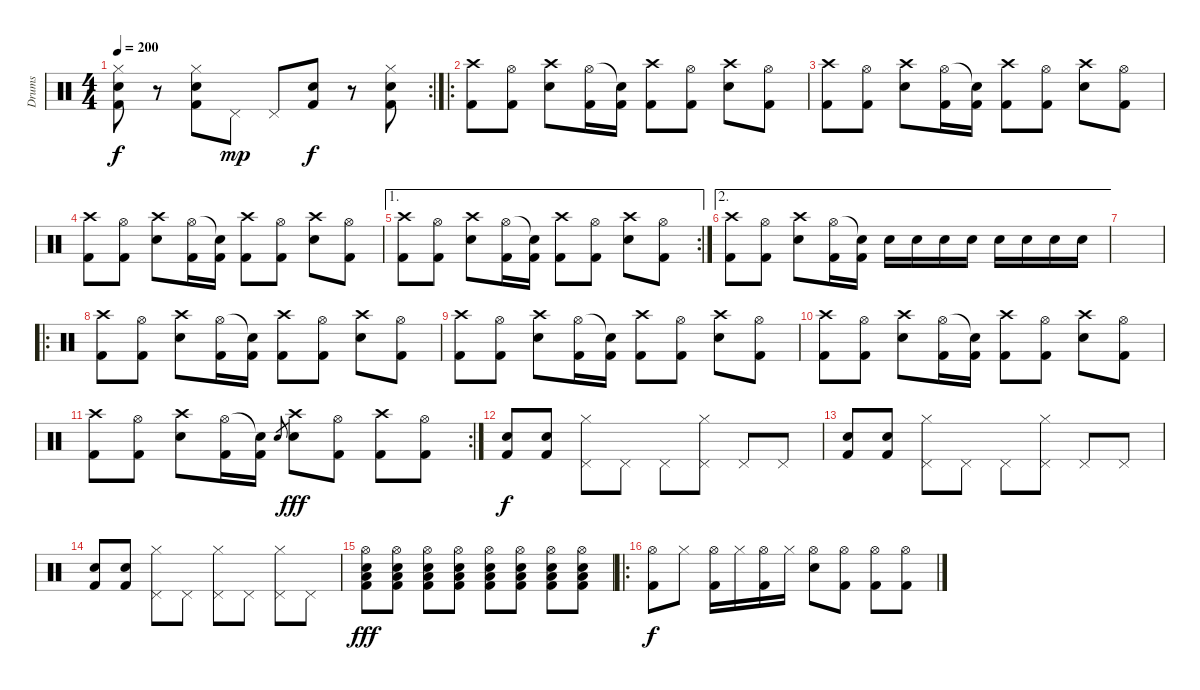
\track ("Drums" "Drums") {instrument percussion}
\staff {score}
\articulation defaults
\rc 2
\ts (4 4)
\tempo 200
\clef neutral
\ks c
("Hi-Hat (closed)" "Electric Snare (hit)" "Kick (hit) 2").8{dy f} r.8 ("Hi-Hat (closed)" "Electric Snare (hit)" "Kick (hit) 2").8 "Pedal Hi-Hat (hit)".8{dy mp} "Pedal Hi-Hat (hit)".8 ("Electric Snare (hit)" "Kick (hit) 2").8{dy f} r.8 ("Hi-Hat (closed)" "Electric Snare (hit)" "Kick (hit) 2").8 |
\ro
("Crash high (hit)" "Kick (hit) 2").8 ("Hi-Hat (open)" "Kick (hit) 2").8 ("Crash high (hit)" "Electric Snare (hit)").8 ("Hi-Hat (open)" "Kick (hit) 2").16 ("Snare (hit)"{t} "Kick (hit) 2").16 ("Crash high (hit)" "Kick (hit) 2").8 ("Hi-Hat (open)" "Kick (hit) 2").8 ("Crash high (hit)" "Electric Snare (hit)").8 ("Hi-Hat (open)" "Kick (hit) 2").8 |
("Crash high (hit)" "Kick (hit) 2").8 ("Hi-Hat (open)" "Kick (hit) 2").8 ("Crash high (hit)" "Electric Snare (hit)").8 ("Hi-Hat (open)" "Kick (hit) 2").16 ("Snare (hit)"{t} "Kick (hit) 2").16 ("Crash high (hit)" "Kick (hit) 2").8 ("Hi-Hat (open)" "Kick (hit) 2").8 ("Crash high (hit)" "Electric Snare (hit)").8 ("Hi-Hat (open)" "Kick (hit) 2").8 |
("Crash high (hit)" "Kick (hit) 2").8 ("Hi-Hat (open)" "Kick (hit) 2").8 ("Crash high (hit)" "Electric Snare (hit)").8 ("Hi-Hat (open)" "Kick (hit) 2").16 ("Snare (hit)"{t} "Kick (hit) 2").16 ("Crash high (hit)" "Kick (hit) 2").8 ("Hi-Hat (open)" "Kick (hit) 2").8 ("Crash high (hit)" "Electric Snare (hit)").8 ("Hi-Hat (open)" "Kick (hit) 2").8 |
\ae 1
\rc 2
("Crash high (hit)" "Kick (hit) 2").8 ("Hi-Hat (open)" "Kick (hit) 2").8 ("Crash high (hit)" "Electric Snare (hit)").8 ("Hi-Hat (open)" "Kick (hit) 2").16 ("Snare (hit)"{t} "Kick (hit) 2").16 ("Crash high (hit)" "Kick (hit) 2").8 ("Hi-Hat (open)" "Kick (hit) 2").8 ("Crash high (hit)" "Electric Snare (hit)").8 ("Hi-Hat (open)" "Kick (hit) 2").8 |
\ae 2
("Crash high (hit)" "Kick (hit) 2").8 ("Hi-Hat (open)" "Kick (hit) 2").8 ("Crash high (hit)" "Electric Snare (hit)").8 ("Hi-Hat (open)" "Kick (hit) 2").16 ("Snare (hit)"{t} "Kick (hit) 2").16 "Electric Snare (hit)".16 "Electric Snare (hit)".16 "Electric Snare (hit)".16 "Electric Snare (hit)".16 "Electric Snare (hit)".16 "Electric Snare (hit)".16 "Electric Snare (hit)".16 "Electric Snare (hit)".16 |
|
\ro
("Crash high (hit)" "Kick (hit) 2").8 ("Hi-Hat (open)" "Kick (hit) 2").8 ("Crash high (hit)" "Electric Snare (hit)").8 ("Hi-Hat (open)" "Kick (hit) 2").16 ("Snare (hit)"{t} "Kick (hit) 2").16 ("Crash high (hit)" "Kick (hit) 2").8 ("Hi-Hat (open)" "Kick (hit) 2").8 ("Crash high (hit)" "Electric Snare (hit)").8 ("Hi-Hat (open)" "Kick (hit) 2").8 |
("Crash high (hit)" "Kick (hit) 2").8 ("Hi-Hat (open)" "Kick (hit) 2").8 ("Crash high (hit)" "Electric Snare (hit)").8 ("Hi-Hat (open)" "Kick (hit) 2").16 ("Snare (hit)"{t} "Kick (hit) 2").16 ("Crash high (hit)" "Kick (hit) 2").8 ("Hi-Hat (open)" "Kick (hit) 2").8 ("Crash high (hit)" "Electric Snare (hit)").8 ("Hi-Hat (open)" "Kick (hit) 2").8 |
("Crash high (hit)" "Kick (hit) 2").8 ("Hi-Hat (open)" "Kick (hit) 2").8 ("Crash high (hit)" "Electric Snare (hit)").8 ("Hi-Hat (open)" "Kick (hit) 2").16 ("Snare (hit)"{t} "Kick (hit) 2").16 ("Crash high (hit)" "Kick (hit) 2").8 ("Hi-Hat (open)" "Kick (hit) 2").8 ("Crash high (hit)" "Electric Snare (hit)").8 ("Hi-Hat (open)" "Kick (hit) 2").8 |
\rc 2
("Crash high (hit)" "Kick (hit) 2").8 ("Hi-Hat (open)" "Kick (hit) 2").8 ("Crash high (hit)" "Electric Snare (hit)").8 ("Hi-Hat (open)" "Kick (hit) 2").16 ("Snare (hit)"{t} "Kick (hit) 2").16 "Electric Snare (hit)".8{gr} ("Crash high (hit)" "Electric Snare (hit)").8{dy fff} ("Hi-Hat (open)" "Kick (hit) 2").8 ("Crash high (hit)" "Kick (hit) 2").8 ("Hi-Hat (open)" "Kick (hit) 2").8 |
("Electric Snare (hit)" "Kick (hit) 2").8{dy f} ("Electric Snare (hit)" "Kick (hit) 2").8 ("Hi-Hat (closed)" "Pedal Hi-Hat (hit)").8 "Pedal Hi-Hat (hit)".8 "Pedal Hi-Hat (hit)".8 ("Hi-Hat (closed)" "Pedal Hi-Hat (hit)").8 "Pedal Hi-Hat (hit)".8 "Pedal Hi-Hat (hit)".8 |
("Electric Snare (hit)" "Kick (hit) 2").8 ("Electric Snare (hit)" "Kick (hit) 2").8 ("Hi-Hat (closed)" "Pedal Hi-Hat (hit)").8 "Pedal Hi-Hat (hit)".8 "Pedal Hi-Hat (hit)".8 ("Hi-Hat (closed)" "Pedal Hi-Hat (hit)").8 "Pedal Hi-Hat (hit)".8 "Pedal Hi-Hat (hit)".8 |
("Electric Snare (hit)" "Kick (hit) 2").8 ("Electric Snare (hit)" "Kick (hit) 2").8 ("Hi-Hat (closed)" "Pedal Hi-Hat (hit)").8 "Pedal Hi-Hat (hit)".8 ("Hi-Hat (closed)" "Pedal Hi-Hat (hit)").8 "Pedal Hi-Hat (hit)".8 ("Hi-Hat (closed)" "Pedal Hi-Hat (hit)").8 "Pedal Hi-Hat (hit)".8 |
("Hi-Hat (open)" "Low Floor Tom (hit)" "Electric Snare (hit)" "Kick (hit) 2").8{dy fff} ("Hi-Hat (open)" "Low Floor Tom (hit)" "Electric Snare (hit)" "Kick (hit) 2").8 ("Hi-Hat (open)" "Low Floor Tom (hit)" "Electric Snare (hit)" "Kick (hit) 2").8 ("Hi-Hat (open)" "Low Floor Tom (hit)" "Electric Snare (hit)" "Kick (hit) 2").8 ("Hi-Hat (open)" "Low Floor Tom (hit)" "Electric Snare (hit)" "Kick (hit) 2").8 ("Hi-Hat (open)" "Low Floor Tom (hit)" "Electric Snare (hit)" "Kick (hit) 2").8 ("Hi-Hat (open)" "Low Floor Tom (hit)" "Electric Snare (hit)" "Kick (hit) 2").8 ("Hi-Hat (open)" "Low Floor Tom (hit)" "Electric Snare (hit)" "Kick (hit) 2").8 |
\ro
("Hi-Hat (open)" "Kick (hit) 2").8{dy f} "Hi-Hat (closed)".8 ("Hi-Hat (open)" "Kick (hit) 2").16 "Hi-Hat (closed)".16 ("Hi-Hat (open)" "Kick (hit) 2").16 "Hi-Hat (closed)".16 ("Hi-Hat (open)" "Electric Snare (hit)").8 ("Hi-Hat (open)" "Kick (hit) 2").8 ("Hi-Hat (open)" "Kick (hit) 2").8 ("Hi-Hat (open)" "Kick (hit) 2").8
